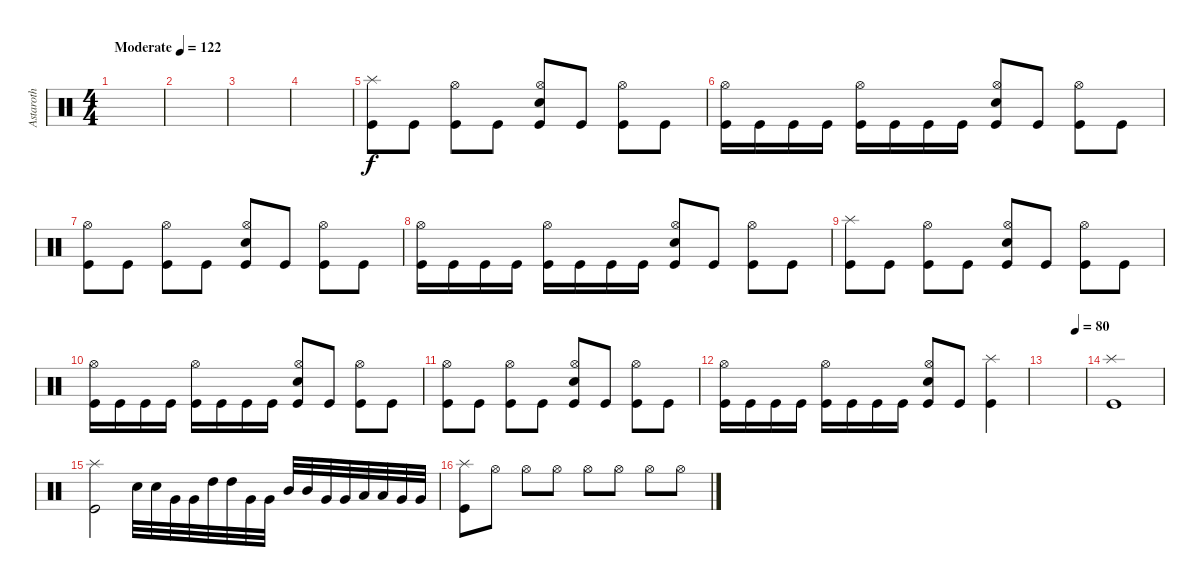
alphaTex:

\track ("Astaroth" "Astaroth") {instrument percussion}
\staff {score}
\articulation defaults
\ts (4 4)
\tempo (122 "Moderate")
\clef neutral
\ks c
|
|
|
|
("Kick (hit)" "Splash (hit)").8 "Kick (hit)".8 ("Kick (hit)" "Hi-Hat (open)").8 "Kick (hit)".8 ("Kick (hit)" "Electric Snare (hit)" "Hi-Hat (open)").8 "Kick (hit)".8 ("Kick (hit)" "Hi-Hat (open)").8 "Kick (hit)".8 |
("Kick (hit)" "Hi-Hat (open)").16 "Kick (hit)".16 "Kick (hit)".16 "Kick (hit)".16 ("Kick (hit)" "Hi-Hat (open)").16 "Kick (hit)".16 "Kick (hit)".16 "Kick (hit)".16 ("Kick (hit)" "Electric Snare (hit)" "Hi-Hat (open)").8 "Kick (hit)".8 ("Kick (hit)" "Hi-Hat (open)").8 "Kick (hit)".8 |
("Kick (hit)" "Hi-Hat (open)").8 "Kick (hit)".8 ("Kick (hit)" "Hi-Hat (open)").8 "Kick (hit)".8 ("Kick (hit)" "Electric Snare (hit)" "Hi-Hat (open)").8 "Kick (hit)".8 ("Kick (hit)" "Hi-Hat (open)").8 "Kick (hit)".8 |
("Kick (hit)" "Hi-Hat (open)").16 "Kick (hit)".16 "Kick (hit)".16 "Kick (hit)".16 ("Kick (hit)" "Hi-Hat (open)").16 "Kick (hit)".16 "Kick (hit)".16 "Kick (hit)".16 ("Kick (hit)" "Electric Snare (hit)" "Hi-Hat (open)").8 "Kick (hit)".8 ("Kick (hit)" "Hi-Hat (open)").8 "Kick (hit)".8 |
("Kick (hit)" "Splash (hit)").8 "Kick (hit)".8 ("Kick (hit)" "Hi-Hat (open)").8 "Kick (hit)".8 ("Kick (hit)" "Electric Snare (hit)" "Hi-Hat (open)").8 "Kick (hit)".8 ("Kick (hit)" "Hi-Hat (open)").8 "Kick (hit)".8 |
("Kick (hit)" "Hi-Hat (open)").16 "Kick (hit)".16 "Kick (hit)".16 "Kick (hit)".16 ("Kick (hit)" "Hi-Hat (open)").16 "Kick (hit)".16 "Kick (hit)".16 "Kick (hit)".16 ("Kick (hit)" "Electric Snare (hit)" "Hi-Hat (open)").8 "Kick (hit)".8 ("Kick (hit)" "Hi-Hat (open)").8 "Kick (hit)".8 |
("Kick (hit)" "Hi-Hat (open)").8 "Kick (hit)".8 ("Kick (hit)" "Hi-Hat (open)").8 "Kick (hit)".8 ("Kick (hit)" "Electric Snare (hit)" "Hi-Hat (open)").8 "Kick (hit)".8 ("Kick (hit)" "Hi-Hat (open)").8 "Kick (hit)".8 |
("Kick (hit)" "Hi-Hat (open)").16 "Kick (hit)".16 "Kick (hit)".16 "Kick (hit)".16 ("Kick (hit)" "Hi-Hat (open)").16 "Kick (hit)".16 "Kick (hit)".16 "Kick (hit)".16 ("Kick (hit)" "Electric Snare (hit)" "Hi-Hat (open)").8 "Kick (hit)".8 ("Kick (hit)" "Splash (hit)").4 |
\tempo (80 0.75)
|
("Kick (hit)" "Splash (hit)").1 |
("Kick (hit)" "Splash (hit)").2 "Electric Snare (hit)".32 "Electric Snare (hit)".32 "Very Low Tom (hit)".32 "Very Low Tom (hit)".32 "High Tom (hit)".32 "High Tom (hit)".32 "Very Low Tom (hit)".32 "Very Low Tom (hit)".32 "Mid Tom (hit)".32 "Mid Tom (hit)".32 "Very Low Tom (hit)".32 "Very Low Tom (hit)".32 "Low Tom (hit)".32 "Low Tom (hit)".32 "Very Low Tom (hit)".32 "Very Low Tom (hit)".32 |
("Kick (hit)" "Splash (hit)").8 "Hi-Hat (open)".8 "Hi-Hat (open)".8 "Hi-Hat (open)".8 "Hi-Hat (open)".8 "Hi-Hat (open)".8 "Hi-Hat (open)".8 "Hi-Hat (open)".8
